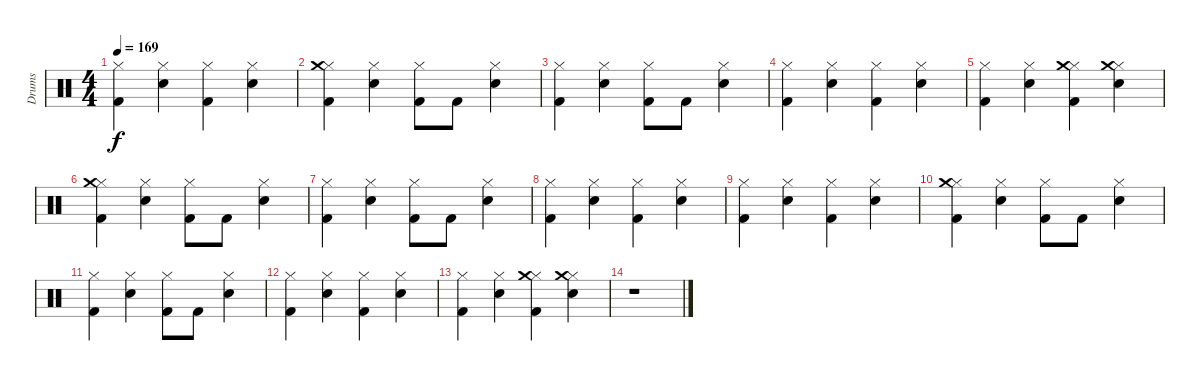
\track ("Drums" "Drums") {instrument percussion}
\staff {score}
\articulation defaults
\ts (4 4)
\tempo 169
\clef neutral
\ks c
("Hi-Hat (closed)" "Kick (hit) 2").4{dy f} ("Hi-Hat (closed)" "Snare (hit) 2").4 ("Hi-Hat (closed)" "Kick (hit) 2").4 ("Hi-Hat (closed)" "Snare (hit) 2").4 |
("Hi-Hat (closed)" "Kick (hit) 2" "Crash medium (hit)").4 ("Hi-Hat (closed)" "Snare (hit) 2").4 ("Hi-Hat (closed)" "Kick (hit) 2").8 "Kick (hit) 2".8 ("Hi-Hat (closed)" "Snare (hit) 2").4 |
("Hi-Hat (closed)" "Kick (hit) 2").4 ("Hi-Hat (closed)" "Snare (hit) 2").4 ("Hi-Hat (closed)" "Kick (hit) 2").8 "Kick (hit) 2".8 ("Hi-Hat (closed)" "Snare (hit) 2").4 |
("Hi-Hat (closed)" "Kick (hit) 2").4 ("Hi-Hat (closed)" "Snare (hit) 2").4 ("Hi-Hat (closed)" "Kick (hit) 2").4 ("Hi-Hat (closed)" "Snare (hit) 2").4 |
("Hi-Hat (closed)" "Kick (hit) 2").4 ("Hi-Hat (closed)" "Snare (hit) 2").4 ("Hi-Hat (closed)" "Kick (hit) 2" "Crash medium (hit)").4 ("Hi-Hat (closed)" "Snare (hit) 2" "Crash medium (hit)").4 |
("Hi-Hat (closed)" "Kick (hit) 2" "Crash medium (hit)").4 ("Hi-Hat (closed)" "Snare (hit) 2").4 ("Hi-Hat (closed)" "Kick (hit) 2").8 "Kick (hit) 2".8 ("Hi-Hat (closed)" "Snare (hit) 2").4 |
("Hi-Hat (closed)" "Kick (hit) 2").4 ("Hi-Hat (closed)" "Snare (hit) 2").4 ("Hi-Hat (closed)" "Kick (hit) 2").8 "Kick (hit) 2".8 ("Hi-Hat (closed)" "Snare (hit) 2").4 |
("Hi-Hat (closed)" "Kick (hit) 2").4 ("Hi-Hat (closed)" "Snare (hit) 2").4 ("Hi-Hat (closed)" "Kick (hit) 2").4 ("Hi-Hat (closed)" "Snare (hit) 2").4 |
("Hi-Hat (closed)" "Kick (hit) 2").4 ("Hi-Hat (closed)" "Snare (hit) 2").4 ("Hi-Hat (closed)" "Kick (hit) 2").4 ("Hi-Hat (closed)" "Snare (hit) 2").4 |
("Hi-Hat (closed)" "Kick (hit) 2" "Crash medium (hit)").4 ("Hi-Hat (closed)" "Snare (hit) 2").4 ("Hi-Hat (closed)" "Kick (hit) 2").8 "Kick (hit) 2".8 ("Hi-Hat (closed)" "Snare (hit) 2").4 |
("Hi-Hat (closed)" "Kick (hit) 2").4 ("Hi-Hat (closed)" "Snare (hit) 2").4 ("Hi-Hat (closed)" "Kick (hit) 2").8 "Kick (hit) 2".8 ("Hi-Hat (closed)" "Snare (hit) 2").4 |
("Hi-Hat (closed)" "Kick (hit) 2").4 ("Hi-Hat (closed)" "Snare (hit) 2").4 ("Hi-Hat (closed)" "Kick (hit) 2").4 ("Hi-Hat (closed)" "Snare (hit) 2").4 |
("Hi-Hat (closed)" "Kick (hit) 2").4 ("Hi-Hat (closed)" "Snare (hit) 2").4 ("Hi-Hat (closed)" "Kick (hit) 2" "Crash medium (hit)").4 ("Hi-Hat (closed)" "Snare (hit) 2" "Crash medium (hit)").4 |
r.1
